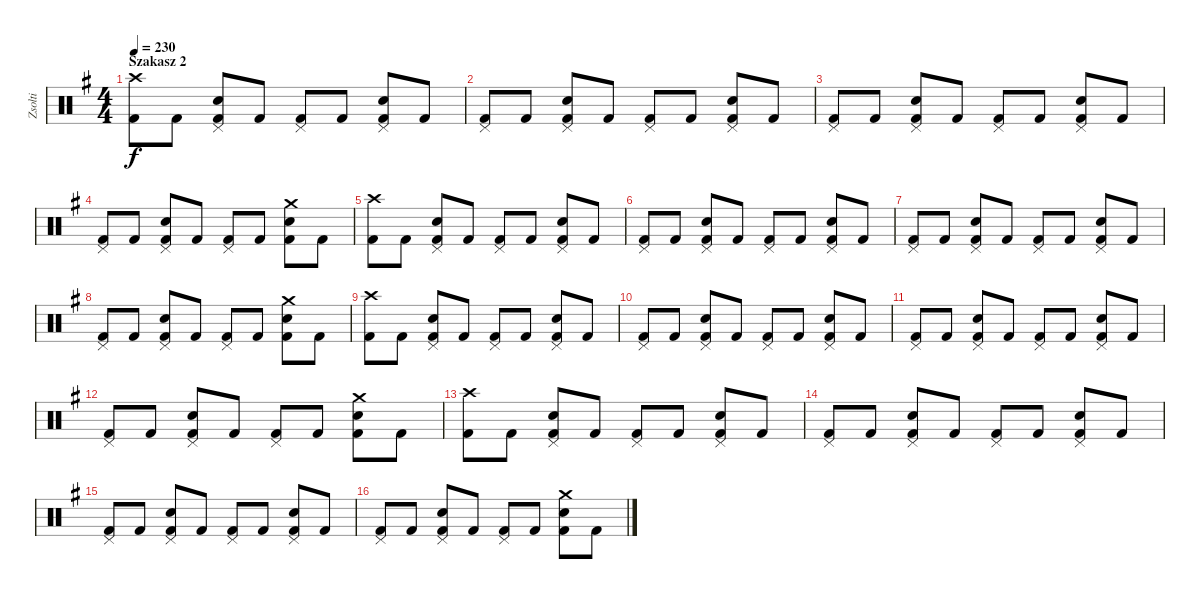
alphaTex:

\track ("Zsolti" "Zsolti") {instrument percussion}
\staff {score}
\articulation defaults
\ts (4 4)
\section ("" "Szakasz 2")
\tempo 230
\clef neutral
\ks eminor
("Crash high (hit)" "Kick (hit) 2").8{dy f} "Kick (hit) 2".8 ("Pedal Hi-Hat (hit)" "Snare (hit) 2" "Kick (hit) 2").8 "Kick (hit) 2".8 ("Pedal Hi-Hat (hit)" "Kick (hit) 2").8 "Kick (hit) 2".8 ("Pedal Hi-Hat (hit)" "Snare (hit) 2" "Kick (hit) 2").8 "Kick (hit) 2".8 |
("Pedal Hi-Hat (hit)" "Kick (hit) 2").8 "Kick (hit) 2".8 ("Pedal Hi-Hat (hit)" "Snare (hit) 2" "Kick (hit) 2").8 "Kick (hit) 2".8 ("Pedal Hi-Hat (hit)" "Kick (hit) 2").8 "Kick (hit) 2".8 ("Pedal Hi-Hat (hit)" "Snare (hit) 2" "Kick (hit) 2").8 "Kick (hit) 2".8 |
("Pedal Hi-Hat (hit)" "Kick (hit) 2").8 "Kick (hit) 2".8 ("Pedal Hi-Hat (hit)" "Snare (hit) 2" "Kick (hit) 2").8 "Kick (hit) 2".8 ("Pedal Hi-Hat (hit)" "Kick (hit) 2").8 "Kick (hit) 2".8 ("Pedal Hi-Hat (hit)" "Snare (hit) 2" "Kick (hit) 2").8 "Kick (hit) 2".8 |
("Pedal Hi-Hat (hit)" "Kick (hit) 2").8 "Kick (hit) 2".8 ("Pedal Hi-Hat (hit)" "Snare (hit) 2" "Kick (hit) 2").8 "Kick (hit) 2".8 ("Pedal Hi-Hat (hit)" "Kick (hit) 2").8 "Kick (hit) 2".8 ("Crash medium (hit)" "Snare (hit) 2" "Kick (hit) 2").8 "Kick (hit) 2".8 |
("Crash high (hit)" "Kick (hit) 2").8 "Kick (hit) 2".8 ("Pedal Hi-Hat (hit)" "Snare (hit) 2" "Kick (hit) 2").8 "Kick (hit) 2".8 ("Pedal Hi-Hat (hit)" "Kick (hit) 2").8 "Kick (hit) 2".8 ("Pedal Hi-Hat (hit)" "Snare (hit) 2" "Kick (hit) 2").8 "Kick (hit) 2".8 |
("Pedal Hi-Hat (hit)" "Kick (hit) 2").8 "Kick (hit) 2".8 ("Pedal Hi-Hat (hit)" "Snare (hit) 2" "Kick (hit) 2").8 "Kick (hit) 2".8 ("Pedal Hi-Hat (hit)" "Kick (hit) 2").8 "Kick (hit) 2".8 ("Pedal Hi-Hat (hit)" "Snare (hit) 2" "Kick (hit) 2").8 "Kick (hit) 2".8 |
("Pedal Hi-Hat (hit)" "Kick (hit) 2").8 "Kick (hit) 2".8 ("Pedal Hi-Hat (hit)" "Snare (hit) 2" "Kick (hit) 2").8 "Kick (hit) 2".8 ("Pedal Hi-Hat (hit)" "Kick (hit) 2").8 "Kick (hit) 2".8 ("Pedal Hi-Hat (hit)" "Snare (hit) 2" "Kick (hit) 2").8 "Kick (hit) 2".8 |
("Pedal Hi-Hat (hit)" "Kick (hit) 2").8 "Kick (hit) 2".8 ("Pedal Hi-Hat (hit)" "Snare (hit) 2" "Kick (hit) 2").8 "Kick (hit) 2".8 ("Pedal Hi-Hat (hit)" "Kick (hit) 2").8 "Kick (hit) 2".8 ("Crash medium (hit)" "Snare (hit) 2" "Kick (hit) 2").8 "Kick (hit) 2".8 |
("Crash high (hit)" "Kick (hit) 2").8 "Kick (hit) 2".8 ("Pedal Hi-Hat (hit)" "Snare (hit) 2" "Kick (hit) 2").8 "Kick (hit) 2".8 ("Pedal Hi-Hat (hit)" "Kick (hit) 2").8 "Kick (hit) 2".8 ("Pedal Hi-Hat (hit)" "Snare (hit) 2" "Kick (hit) 2").8 "Kick (hit) 2".8 |
("Pedal Hi-Hat (hit)" "Kick (hit) 2").8 "Kick (hit) 2".8 ("Pedal Hi-Hat (hit)" "Snare (hit) 2" "Kick (hit) 2").8 "Kick (hit) 2".8 ("Pedal Hi-Hat (hit)" "Kick (hit) 2").8 "Kick (hit) 2".8 ("Pedal Hi-Hat (hit)" "Snare (hit) 2" "Kick (hit) 2").8 "Kick (hit) 2".8 |
("Pedal Hi-Hat (hit)" "Kick (hit) 2").8 "Kick (hit) 2".8 ("Pedal Hi-Hat (hit)" "Snare (hit) 2" "Kick (hit) 2").8 "Kick (hit) 2".8 ("Pedal Hi-Hat (hit)" "Kick (hit) 2").8 "Kick (hit) 2".8 ("Pedal Hi-Hat (hit)" "Snare (hit) 2" "Kick (hit) 2").8 "Kick (hit) 2".8 |
("Pedal Hi-Hat (hit)" "Kick (hit) 2").8 "Kick (hit) 2".8 ("Pedal Hi-Hat (hit)" "Snare (hit) 2" "Kick (hit) 2").8 "Kick (hit) 2".8 ("Pedal Hi-Hat (hit)" "Kick (hit) 2").8 "Kick (hit) 2".8 ("Crash medium (hit)" "Snare (hit) 2" "Kick (hit) 2").8 "Kick (hit) 2".8 |
("Crash high (hit)" "Kick (hit) 2").8 "Kick (hit) 2".8 ("Pedal Hi-Hat (hit)" "Snare (hit) 2" "Kick (hit) 2").8 "Kick (hit) 2".8 ("Pedal Hi-Hat (hit)" "Kick (hit) 2").8 "Kick (hit) 2".8 ("Pedal Hi-Hat (hit)" "Snare (hit) 2" "Kick (hit) 2").8 "Kick (hit) 2".8 |
("Pedal Hi-Hat (hit)" "Kick (hit) 2").8 "Kick (hit) 2".8 ("Pedal Hi-Hat (hit)" "Snare (hit) 2" "Kick (hit) 2").8 "Kick (hit) 2".8 ("Pedal Hi-Hat (hit)" "Kick (hit) 2").8 "Kick (hit) 2".8 ("Pedal Hi-Hat (hit)" "Snare (hit) 2" "Kick (hit) 2").8 "Kick (hit) 2".8 |
("Pedal Hi-Hat (hit)" "Kick (hit) 2").8 "Kick (hit) 2".8 ("Pedal Hi-Hat (hit)" "Snare (hit) 2" "Kick (hit) 2").8 "Kick (hit) 2".8 ("Pedal Hi-Hat (hit)" "Kick (hit) 2").8 "Kick (hit) 2".8 ("Pedal Hi-Hat (hit)" "Snare (hit) 2" "Kick (hit) 2").8 "Kick (hit) 2".8 |
("Pedal Hi-Hat (hit)" "Kick (hit) 2").8 "Kick (hit) 2".8 ("Pedal Hi-Hat (hit)" "Snare (hit) 2" "Kick (hit) 2").8 "Kick (hit) 2".8 ("Pedal Hi-Hat (hit)" "Kick (hit) 2").8 "Kick (hit) 2".8 ("Crash medium (hit)" "Snare (hit) 2" "Kick (hit) 2").8 "Kick (hit) 2".8
